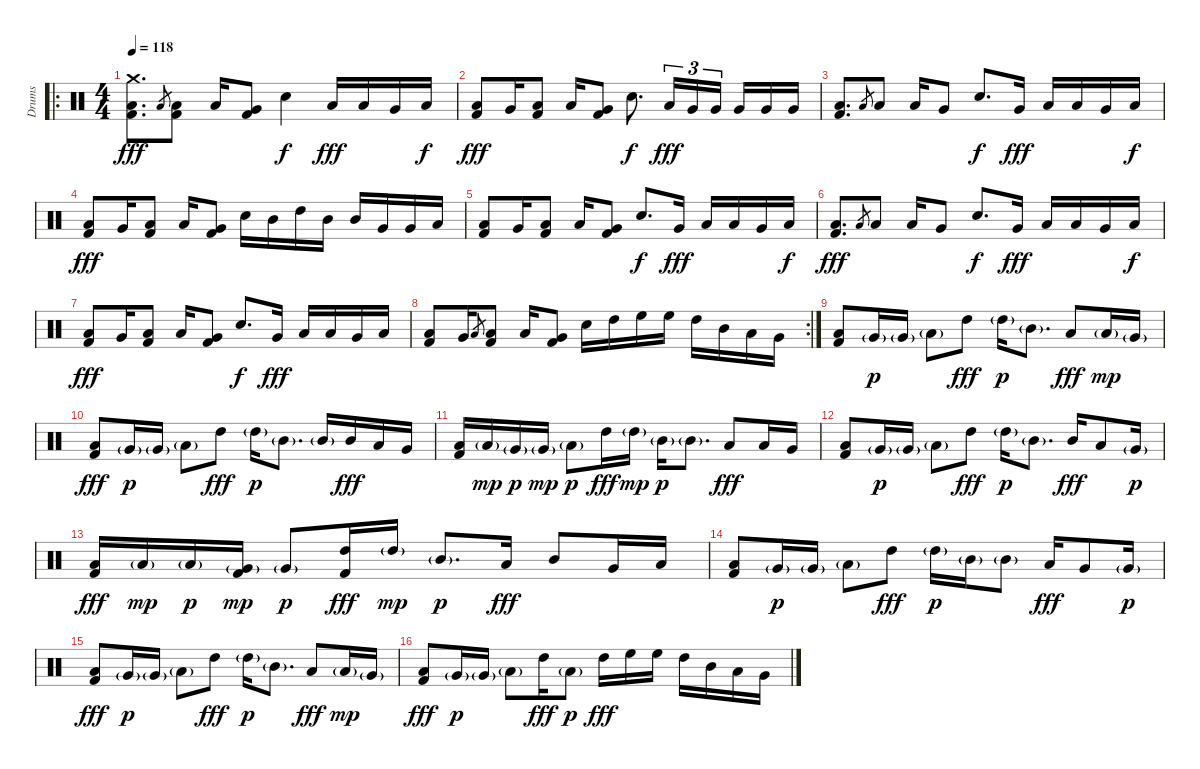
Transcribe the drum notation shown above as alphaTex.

\track ("Drums" "Drums") {instrument percussion}
\staff {score}
\articulation defaults
\ro
\ts (4 4)
\tempo 118
\clef neutral
\ks c
("Crash medium (hit)" "Low Floor Tom (hit)" "Kick (hit) 2").8{d dy fff} "Low Floor Tom (hit)".8{gr} ("Low Floor Tom (hit)" "Kick (hit) 2").8 "Low Tom (hit)".16 ("Very Low Tom (hit)" "Kick (hit) 2").8 "Electric Snare (hit)".4{dy f} "Low Tom (hit)".16{dy fff} "Low Tom (hit)".16 "Very Low Tom (hit)".16 "Low Floor Tom (hit)".16{dy f} |
("Low Floor Tom (hit)" "Kick (hit) 2").8{dy fff} "Very Low Tom (hit)".16 ("Low Floor Tom (hit)" "Kick (hit) 2").8 "Low Tom (hit)".16 ("Very Low Tom (hit)" "Kick (hit) 2").8 "Electric Snare (hit)".8{d dy f} "Low Floor Tom (hit)".16{tu (3 2) dy fff} "Very Low Tom (hit)".16{tu (3 2)} "Very Low Tom (hit)".16{tu (3 2) beam splitsecondary} "Very Low Tom (hit)".16 "Very Low Tom (hit)".16 "Very Low Tom (hit)".16 |
("Low Floor Tom (hit)" "Kick (hit) 2").8{d} "Low Floor Tom (hit)".8{gr} "Low Floor Tom (hit)".8 "Low Tom (hit)".16 "Very Low Tom (hit)".8 "Electric Snare (hit)".8{d dy f} "Very Low Tom (hit)".16{dy fff} "Low Tom (hit)".16 "Low Tom (hit)".16 "Very Low Tom (hit)".16 "Low Floor Tom (hit)".16{dy f} |
("Low Floor Tom (hit)" "Kick (hit) 2").8{dy fff} "Very Low Tom (hit)".16 ("Low Floor Tom (hit)" "Kick (hit) 2").8 "Low Tom (hit)".16 ("Very Low Tom (hit)" "Kick (hit) 2").8 "Electric Snare (hit)".16 "Mid Tom (hit)".16 "High Tom (hit)".16 "Mid Tom (hit)".16 "Mid Tom (hit)".16 "Very Low Tom (hit)".16 "Very Low Tom (hit)".16 "Low Floor Tom (hit)".16 |
("Low Floor Tom (hit)" "Kick (hit) 2").8 "Very Low Tom (hit)".16 ("Low Floor Tom (hit)" "Kick (hit) 2").8 "Low Tom (hit)".16 ("Very Low Tom (hit)" "Kick (hit) 2").8 "Electric Snare (hit)".8{d dy f} "Very Low Tom (hit)".16{dy fff} "Low Tom (hit)".16 "Low Tom (hit)".16 "Very Low Tom (hit)".16 "Low Floor Tom (hit)".16{dy f} |
("Low Floor Tom (hit)" "Kick (hit) 2").8{d dy fff} "Low Floor Tom (hit)".8{gr} "Low Floor Tom (hit)".8 "Low Tom (hit)".16 "Very Low Tom (hit)".8 "Electric Snare (hit)".8{d dy f} "Very Low Tom (hit)".16{dy fff} "Low Tom (hit)".16 "Low Tom (hit)".16 "Very Low Tom (hit)".16 "Low Floor Tom (hit)".16{dy f} |
("Low Floor Tom (hit)" "Kick (hit) 2").8{dy fff} "Very Low Tom (hit)".16 ("Low Floor Tom (hit)" "Kick (hit) 2").8 "Low Tom (hit)".16 ("Very Low Tom (hit)" "Kick (hit) 2").8 "Electric Snare (hit)".8{d dy f} "Very Low Tom (hit)".16{dy fff} "Low Tom (hit)".16 "Low Tom (hit)".16 "Very Low Tom (hit)".16 "Low Floor Tom (hit)".16 |
\rc 2
("Low Floor Tom (hit)" "Kick (hit) 2").8 "Very Low Tom (hit)".16 "Low Floor Tom (hit)".8{gr} ("Low Floor Tom (hit)" "Kick (hit) 2").8 "Low Tom (hit)".16 ("Very Low Tom (hit)" "Kick (hit) 2").8 "Electric Snare (hit)".16 "High Tom (hit)".16 "High Floor Tom (hit)".16 "High Floor Tom (hit)".16 "High Tom (hit)".16 "Mid Tom (hit)".16 "Low Tom (hit)".16 "Very Low Tom (hit)".16 |
("Low Floor Tom (hit)" "Kick (hit) 2").8 "Very Low Tom (hit)"{g}.16{dy p} "Very Low Tom (hit)"{g}.16 "Low Floor Tom (hit)"{g}.8 "High Tom (hit)".8{dy fff} "High Tom (hit)"{g}.16{dy p} "Mid Tom (hit)"{g}.8{d} "Low Tom (hit)".8{dy fff} "Low Tom (hit)"{g}.16{dy mp} "Very Low Tom (hit)"{g}.16 |
("Low Floor Tom (hit)" "Kick (hit) 2").8{dy fff} "Very Low Tom (hit)"{g}.16{dy p} "Very Low Tom (hit)"{g}.16 "Low Floor Tom (hit)"{g}.8 "High Tom (hit)".8{dy fff} "High Tom (hit)"{g}.16{dy p} "Mid Tom (hit)"{g}.8{d} "Mid Tom (hit)"{g}.16 "Mid Tom (hit)".16{dy fff} "Low Tom (hit)".16 "Very Low Tom (hit)".16 |
("Low Floor Tom (hit)" "Kick (hit) 2").16 "Low Tom (hit)"{g}.16{dy mp} "Very Low Tom (hit)"{g}.16{dy p} "Very Low Tom (hit)"{g}.16{dy mp} "Low Floor Tom (hit)"{g}.8{dy p} "High Tom (hit)".16{dy fff} "High Tom (hit)"{g}.16{dy mp} "Mid Tom (hit)"{g}.16{dy p} "Mid Tom (hit)"{g}.8{d} "Low Tom (hit)".8{dy fff} "Low Tom (hit)".16 "Very Low Tom (hit)".16 |
("Low Floor Tom (hit)" "Kick (hit) 2").8 "Very Low Tom (hit)"{g}.16{dy p} "Very Low Tom (hit)"{g}.16 "Low Floor Tom (hit)"{g}.8 "High Tom (hit)".8{dy fff} "High Tom (hit)"{g}.16{dy p} "Mid Tom (hit)"{g}.8{d} "Mid Tom (hit)".16{dy fff} "Low Tom (hit)".8 "Very Low Tom (hit)"{g}.16{dy p} |
("Low Floor Tom (hit)" "Kick (hit) 2").16{dy fff} "Low Floor Tom (hit)"{g}.16{dy mp} "Low Floor Tom (hit)"{g}.16{dy p} ("Very Low Tom (hit)"{g} "Kick (hit) 2").16{dy mp} "Very Low Tom (hit)"{g}.8{dy p} ("High Tom (hit)" "Kick (hit) 2").16{dy fff} "High Tom (hit)"{g}.16{dy mp} "Mid Tom (hit)"{g}.8{d dy p} "Low Tom (hit)".16{dy fff} "Mid Tom (hit)".8 "Very Low Tom (hit)".16 "Low Tom (hit)".16 |
("Low Floor Tom (hit)" "Kick (hit) 2").8 "Very Low Tom (hit)"{g}.16{dy p} "Very Low Tom (hit)"{g}.16 "Low Floor Tom (hit)"{g}.8 "High Tom (hit)".8{dy fff} "High Tom (hit)"{g}.16{dy p} "Mid Tom (hit)"{g}.16 "Mid Tom (hit)"{g}.8 "Low Tom (hit)".16{dy fff} "Very Low Tom (hit)".8 "Very Low Tom (hit)"{g}.16{dy p} |
("Low Floor Tom (hit)" "Kick (hit) 2").8{dy fff} "Very Low Tom (hit)"{g}.16{dy p} "Very Low Tom (hit)"{g}.16 "Low Floor Tom (hit)"{g}.8 "High Tom (hit)".8{dy fff} "High Tom (hit)"{g}.16{dy p} "Mid Tom (hit)"{g}.8{d} "Low Tom (hit)".8{dy fff} "Low Tom (hit)"{g}.16{dy mp} "Very Low Tom (hit)"{g}.16 |
("Low Floor Tom (hit)" "Kick (hit) 2").8{dy fff} "Very Low Tom (hit)"{g}.16{dy p} "Very Low Tom (hit)"{g}.16 "Low Floor Tom (hit)"{g}.8 "High Tom (hit)".16{dy fff} "Low Tom (hit)"{g}.8{dy p} "High Tom (hit)".16{dy fff} "High Floor Tom (hit)".16 "High Floor Tom (hit)".16 "High Tom (hit)".16 "Mid Tom (hit)".16 "Low Tom (hit)".16 "Very Low Tom (hit)".16
